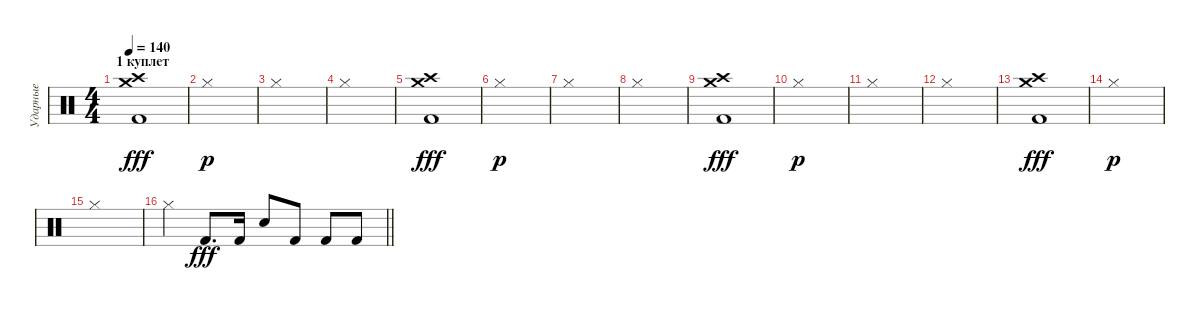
\track ("Ударные" "Ударные") {instrument percussion}
\staff {score}
\articulation defaults
\ts (4 4)
\section ("" "1 куплет")
\tempo 140
\clef neutral
\ks c
("Crash medium (hit)" "Crash high (hit)" "Kick (hit) 2").1{dy fff} |
"Hi-Hat (closed)".1{dy p} |
"Hi-Hat (closed)".1 |
"Hi-Hat (closed)".1 |
("Crash medium (hit)" "Crash high (hit)" "Kick (hit) 2").1{dy fff} |
"Hi-Hat (closed)".1{dy p} |
"Hi-Hat (closed)".1 |
"Hi-Hat (closed)".1 |
("Crash medium (hit)" "Crash high (hit)" "Kick (hit) 2").1{dy fff} |
"Hi-Hat (closed)".1{dy p} |
"Hi-Hat (closed)".1 |
"Hi-Hat (closed)".1 |
("Crash medium (hit)" "Crash high (hit)" "Kick (hit) 2").1{dy fff} |
"Hi-Hat (closed)".1{dy p} |
"Hi-Hat (closed)".1 |
\barLineRight lightlight "Hi-Hat (closed)".4 "Kick (hit) 2".8{d dy fff} "Kick (hit) 2".16 "Snare (hit) 2".8 "Kick (hit) 2".8 "Kick (hit) 2".8 "Kick (hit) 2".8
